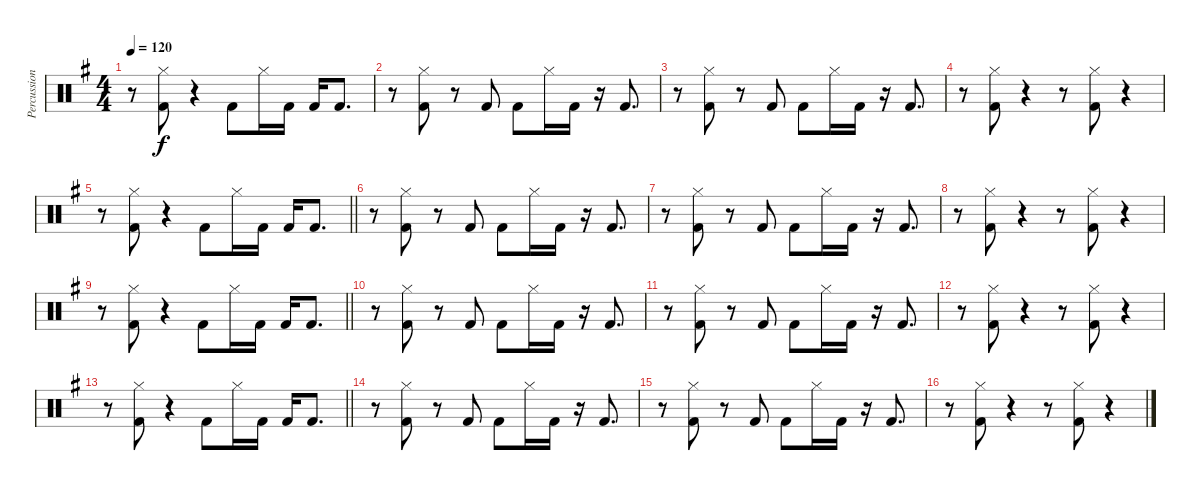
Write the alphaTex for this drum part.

\track ("Percussion" "Percussion") {instrument percussion}
\staff {score}
\articulation defaults
\ts (4 4)
\tempo 120
\clef neutral
\ks eminor
r.8{dy f} ("Hi-Hat (closed)" "Kick (hit) 2").8 r.4 "Kick (hit) 2".8 "Hi-Hat (closed)".16 "Kick (hit) 2".16 "Kick (hit) 2".16 "Kick (hit) 2".8{d} |
r.8 ("Hi-Hat (closed)" "Kick (hit) 2").8 r.8 "Kick (hit) 2".8 "Kick (hit) 2".8 "Hi-Hat (closed)".16 "Kick (hit) 2".16 r.16 "Kick (hit) 2".8{d} |
r.8 ("Hi-Hat (closed)" "Kick (hit) 2").8 r.8 "Kick (hit) 2".8 "Kick (hit) 2".8 "Hi-Hat (closed)".16 "Kick (hit) 2".16 r.16 "Kick (hit) 2".8{d} |
r.8 ("Hi-Hat (closed)" "Kick (hit) 2").8 r.4 r.8 ("Hi-Hat (closed)" "Kick (hit) 2").8 r.4 |
\barLineRight lightlight
r.8 ("Hi-Hat (closed)" "Kick (hit) 2").8 r.4 "Kick (hit) 2".8 "Hi-Hat (closed)".16 "Kick (hit) 2".16 "Kick (hit) 2".16 "Kick (hit) 2".8{d} |
r.8 ("Hi-Hat (closed)" "Kick (hit) 2").8 r.8 "Kick (hit) 2".8 "Kick (hit) 2".8 "Hi-Hat (closed)".16 "Kick (hit) 2".16 r.16 "Kick (hit) 2".8{d} |
r.8 ("Hi-Hat (closed)" "Kick (hit) 2").8 r.8 "Kick (hit) 2".8 "Kick (hit) 2".8 "Hi-Hat (closed)".16 "Kick (hit) 2".16 r.16 "Kick (hit) 2".8{d} |
r.8 ("Hi-Hat (closed)" "Kick (hit) 2").8 r.4 r.8 ("Hi-Hat (closed)" "Kick (hit) 2").8 r.4 |
\barLineRight lightlight
r.8 ("Hi-Hat (closed)" "Kick (hit) 2").8 r.4 "Kick (hit) 2".8 "Hi-Hat (closed)".16 "Kick (hit) 2".16 "Kick (hit) 2".16 "Kick (hit) 2".8{d volume 2} |
r.8 ("Hi-Hat (closed)" "Kick (hit) 2").8 r.8 "Kick (hit) 2".8 "Kick (hit) 2".8 "Hi-Hat (closed)".16 "Kick (hit) 2".16 r.16 "Kick (hit) 2".8{d} |
r.8 ("Hi-Hat (closed)" "Kick (hit) 2").8 r.8 "Kick (hit) 2".8 "Kick (hit) 2".8 "Hi-Hat (closed)".16 "Kick (hit) 2".16 r.16 "Kick (hit) 2".8{d} |
r.8 ("Hi-Hat (closed)" "Kick (hit) 2").8 r.4 r.8 ("Hi-Hat (closed)" "Kick (hit) 2").8 r.4 |
\barLineRight lightlight
r.8 ("Hi-Hat (closed)" "Kick (hit) 2").8 r.4 "Kick (hit) 2".8 "Hi-Hat (closed)".16 "Kick (hit) 2".16 "Kick (hit) 2".16 "Kick (hit) 2".8{d} |
r.8 ("Hi-Hat (closed)" "Kick (hit) 2").8 r.8 "Kick (hit) 2".8 "Kick (hit) 2".8 "Hi-Hat (closed)".16 "Kick (hit) 2".16 r.16 "Kick (hit) 2".8{d} |
r.8 ("Hi-Hat (closed)" "Kick (hit) 2").8 r.8 "Kick (hit) 2".8 "Kick (hit) 2".8 "Hi-Hat (closed)".16 "Kick (hit) 2".16 r.16 "Kick (hit) 2".8{d} |
r.8 ("Hi-Hat (closed)" "Kick (hit) 2").8 r.4 r.8 ("Hi-Hat (closed)" "Kick (hit) 2").8 r.4
